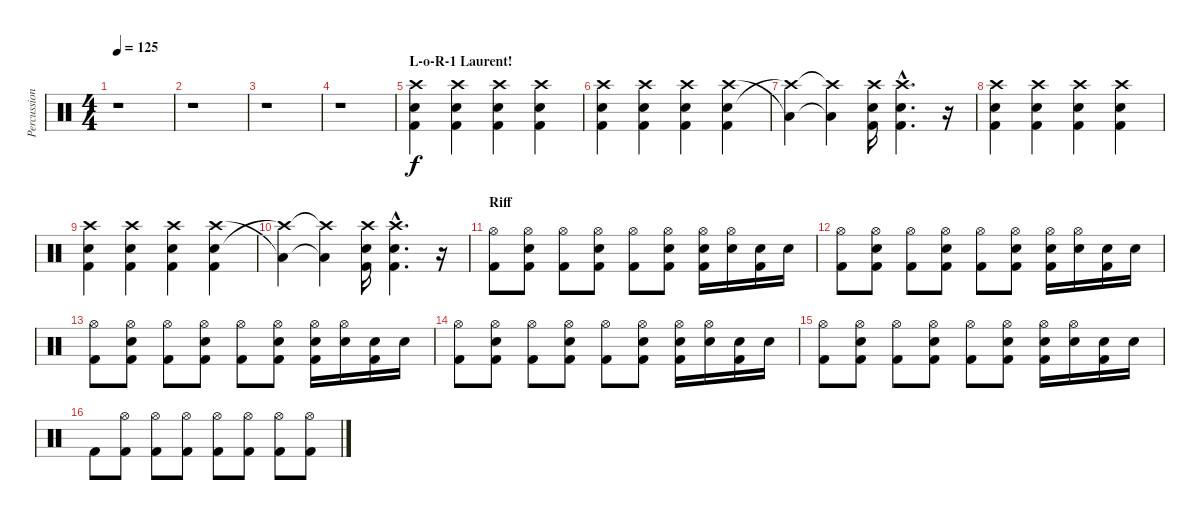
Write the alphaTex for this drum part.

\track ("Percussions" "Percussion") {instrument percussion}
\staff {score}
\articulation defaults
\ts (4 4)
\tempo 125
\clef neutral
\ks c
r.1{dy f} |
r.1 |
r.1 |
r.1 |
\section ("" "L-o-R-1 Laurent!")
("Crash high (hit)" "Snare (hit) 2" "Kick (hit) 2").4 ("Crash high (hit)" "Snare (hit) 2" "Kick (hit) 2").4 ("Crash high (hit)" "Snare (hit) 2" "Kick (hit) 2").4 ("Crash high (hit)" "Snare (hit) 2" "Kick (hit) 2").4 |
("Crash high (hit)" "Snare (hit) 2" "Kick (hit) 2").4 ("Crash high (hit)" "Snare (hit) 2" "Kick (hit) 2").4 ("Crash high (hit)" "Snare (hit) 2" "Kick (hit) 2").4 ("Crash high (hit)" "Snare (hit) 2" "Kick (hit) 2").4 |
("Low Tom (hit)"{t} "Crash high (hit)"{t}).4 ("Low Tom (hit)"{t} "Crash high (hit)"{t}).4 ("Crash high (hit)" "Snare (hit) 2" "Kick (hit) 2").16 ("Crash high (hit)"{hac} "Snare (hit) 2"{hac} "Kick (hit) 2"{hac}).4{d} r.16 |
("Crash high (hit)" "Snare (hit) 2" "Kick (hit) 2").4 ("Crash high (hit)" "Snare (hit) 2" "Kick (hit) 2").4 ("Crash high (hit)" "Snare (hit) 2" "Kick (hit) 2").4 ("Crash high (hit)" "Snare (hit) 2" "Kick (hit) 2").4 |
("Crash high (hit)" "Snare (hit) 2" "Kick (hit) 2").4 ("Crash high (hit)" "Snare (hit) 2" "Kick (hit) 2").4 ("Crash high (hit)" "Snare (hit) 2" "Kick (hit) 2").4 ("Crash high (hit)" "Snare (hit) 2" "Kick (hit) 2").4 |
("Low Tom (hit)"{t} "Crash high (hit)"{t}).4 ("Low Tom (hit)"{t} "Crash high (hit)"{t}).4 ("Crash high (hit)" "Snare (hit) 2" "Kick (hit) 2").16 ("Crash high (hit)"{hac} "Snare (hit) 2"{hac} "Kick (hit) 2"{hac}).4{d} r.16 |
\section ("" "Riff")
("Hi-Hat (open)" "Kick (hit) 2").8 ("Hi-Hat (open)" "Electric Snare (hit)" "Kick (hit) 2").8 ("Hi-Hat (open)" "Kick (hit) 2").8 ("Hi-Hat (open)" "Electric Snare (hit)" "Kick (hit) 2").8 ("Hi-Hat (open)" "Kick (hit) 2").8 ("Hi-Hat (open)" "Electric Snare (hit)" "Kick (hit) 2").8 ("Hi-Hat (open)" "Electric Snare (hit)" "Kick (hit) 2").16 ("Hi-Hat (open)" "Electric Snare (hit)").16 ("Electric Snare (hit)" "Kick (hit) 2").16 "Electric Snare (hit)".16 |
("Hi-Hat (open)" "Kick (hit) 2").8 ("Hi-Hat (open)" "Electric Snare (hit)" "Kick (hit) 2").8 ("Hi-Hat (open)" "Kick (hit) 2").8 ("Hi-Hat (open)" "Electric Snare (hit)" "Kick (hit) 2").8 ("Hi-Hat (open)" "Kick (hit) 2").8 ("Hi-Hat (open)" "Electric Snare (hit)" "Kick (hit) 2").8 ("Hi-Hat (open)" "Electric Snare (hit)" "Kick (hit) 2").16 ("Hi-Hat (open)" "Electric Snare (hit)").16 ("Electric Snare (hit)" "Kick (hit) 2").16 "Electric Snare (hit)".16 |
("Hi-Hat (open)" "Kick (hit) 2").8 ("Hi-Hat (open)" "Electric Snare (hit)" "Kick (hit) 2").8 ("Hi-Hat (open)" "Kick (hit) 2").8 ("Hi-Hat (open)" "Electric Snare (hit)" "Kick (hit) 2").8 ("Hi-Hat (open)" "Kick (hit) 2").8 ("Hi-Hat (open)" "Electric Snare (hit)" "Kick (hit) 2").8 ("Hi-Hat (open)" "Electric Snare (hit)" "Kick (hit) 2").16 ("Hi-Hat (open)" "Electric Snare (hit)").16 ("Electric Snare (hit)" "Kick (hit) 2").16 "Electric Snare (hit)".16 |
("Hi-Hat (open)" "Kick (hit) 2").8 ("Hi-Hat (open)" "Electric Snare (hit)" "Kick (hit) 2").8 ("Hi-Hat (open)" "Kick (hit) 2").8 ("Hi-Hat (open)" "Electric Snare (hit)" "Kick (hit) 2").8 ("Hi-Hat (open)" "Kick (hit) 2").8 ("Hi-Hat (open)" "Electric Snare (hit)" "Kick (hit) 2").8 ("Hi-Hat (open)" "Electric Snare (hit)" "Kick (hit) 2").16 ("Hi-Hat (open)" "Electric Snare (hit)").16 ("Electric Snare (hit)" "Kick (hit) 2").16 "Electric Snare (hit)".16 |
("Hi-Hat (open)" "Kick (hit) 2").8 ("Hi-Hat (open)" "Electric Snare (hit)" "Kick (hit) 2").8 ("Hi-Hat (open)" "Kick (hit) 2").8 ("Hi-Hat (open)" "Electric Snare (hit)" "Kick (hit) 2").8 ("Hi-Hat (open)" "Kick (hit) 2").8 ("Hi-Hat (open)" "Electric Snare (hit)" "Kick (hit) 2").8 ("Hi-Hat (open)" "Electric Snare (hit)" "Kick (hit) 2").16 ("Hi-Hat (open)" "Electric Snare (hit)").16 ("Electric Snare (hit)" "Kick (hit) 2").16 "Electric Snare (hit)".16 |
"Kick (hit) 2".8 ("Hi-Hat (open)" "Kick (hit) 2").8 ("Hi-Hat (open)" "Kick (hit) 2").8 ("Hi-Hat (open)" "Kick (hit) 2").8 ("Hi-Hat (open)" "Kick (hit) 2").8 ("Hi-Hat (open)" "Kick (hit) 2").8 ("Hi-Hat (open)" "Kick (hit) 2").8 ("Hi-Hat (open)" "Kick (hit) 2").8
